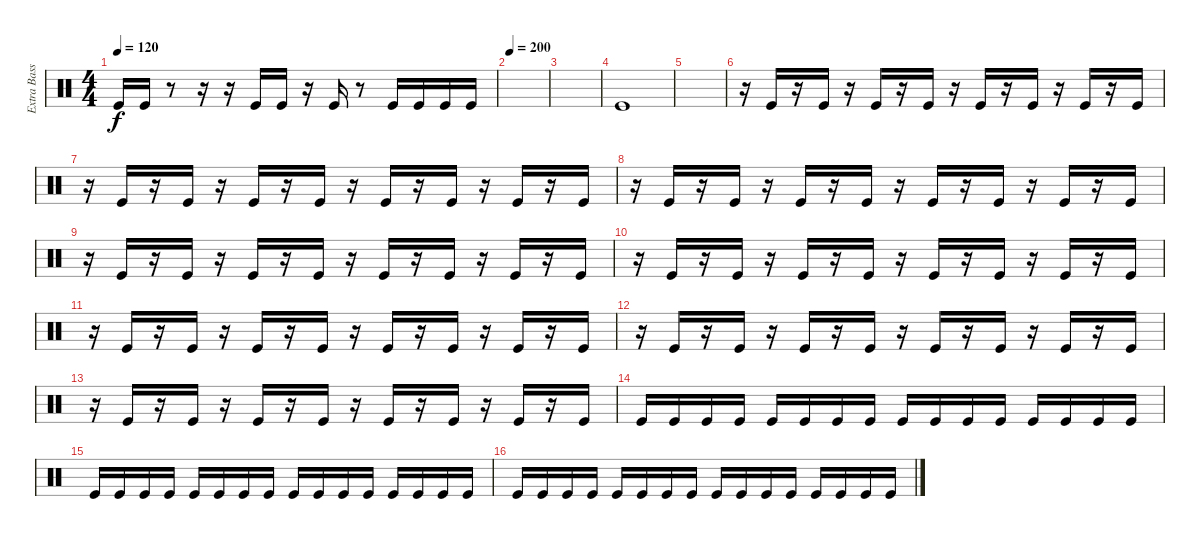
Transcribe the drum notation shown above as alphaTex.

\track ("Extra Bass Drum" "Extra Bass") {instrument percussion}
\staff {score}
\articulation defaults
\ts (4 4)
\tempo 120
\clef neutral
\ks c "Kick (hit)".16{dy f} "Kick (hit)".16
r.8 r.16 r.16 "Kick (hit)".16 "Kick (hit)".16 r.16 "Kick (hit)".16 r.8 "Kick (hit)".16 "Kick (hit)".16 "Kick (hit)".16 "Kick (hit)".16 |
\tempo 200
|
|
"Kick (hit)".1 |
|
r.16 "Kick (hit)".16 r.16 "Kick (hit)".16 r.16 "Kick (hit)".16 r.16 "Kick (hit)".16 r.16 "Kick (hit)".16 r.16 "Kick (hit)".16 r.16 "Kick (hit)".16 r.16 "Kick (hit)".16 |
r.16 "Kick (hit)".16 r.16 "Kick (hit)".16 r.16 "Kick (hit)".16 r.16 "Kick (hit)".16 r.16 "Kick (hit)".16 r.16 "Kick (hit)".16 r.16 "Kick (hit)".16 r.16 "Kick (hit)".16 |
r.16 "Kick (hit)".16 r.16 "Kick (hit)".16 r.16 "Kick (hit)".16 r.16 "Kick (hit)".16 r.16 "Kick (hit)".16 r.16 "Kick (hit)".16 r.16 "Kick (hit)".16 r.16 "Kick (hit)".16 |
r.16 "Kick (hit)".16 r.16 "Kick (hit)".16 r.16 "Kick (hit)".16 r.16 "Kick (hit)".16 r.16 "Kick (hit)".16 r.16 "Kick (hit)".16 r.16 "Kick (hit)".16 r.16 "Kick (hit)".16 |
r.16 "Kick (hit)".16 r.16 "Kick (hit)".16 r.16 "Kick (hit)".16 r.16 "Kick (hit)".16 r.16 "Kick (hit)".16 r.16 "Kick (hit)".16 r.16 "Kick (hit)".16 r.16 "Kick (hit)".16 |
r.16 "Kick (hit)".16 r.16 "Kick (hit)".16 r.16 "Kick (hit)".16 r.16 "Kick (hit)".16 r.16 "Kick (hit)".16 r.16 "Kick (hit)".16 r.16 "Kick (hit)".16 r.16 "Kick (hit)".16 |
r.16 "Kick (hit)".16 r.16 "Kick (hit)".16 r.16 "Kick (hit)".16 r.16 "Kick (hit)".16 r.16 "Kick (hit)".16 r.16 "Kick (hit)".16 r.16 "Kick (hit)".16 r.16 "Kick (hit)".16 |
r.16 "Kick (hit)".16 r.16 "Kick (hit)".16 r.16 "Kick (hit)".16 r.16 "Kick (hit)".16 r.16 "Kick (hit)".16 r.16 "Kick (hit)".16 r.16 "Kick (hit)".16 r.16 "Kick (hit)".16 |
"Kick (hit)".16 "Kick (hit)".16 "Kick (hit)".16 "Kick (hit)".16 "Kick (hit)".16 "Kick (hit)".16 "Kick (hit)".16 "Kick (hit)".16 "Kick (hit)".16 "Kick (hit)".16 "Kick (hit)".16 "Kick (hit)".16 "Kick (hit)".16 "Kick (hit)".16 "Kick (hit)".16 "Kick (hit)".16 |
"Kick (hit)".16 "Kick (hit)".16 "Kick (hit)".16 "Kick (hit)".16 "Kick (hit)".16 "Kick (hit)".16 "Kick (hit)".16 "Kick (hit)".16 "Kick (hit)".16 "Kick (hit)".16 "Kick (hit)".16 "Kick (hit)".16 "Kick (hit)".16 "Kick (hit)".16 "Kick (hit)".16 "Kick (hit)".16 |
"Kick (hit)".16 "Kick (hit)".16 "Kick (hit)".16 "Kick (hit)".16 "Kick (hit)".16 "Kick (hit)".16 "Kick (hit)".16 "Kick (hit)".16 "Kick (hit)".16 "Kick (hit)".16 "Kick (hit)".16 "Kick (hit)".16 "Kick (hit)".16 "Kick (hit)".16 "Kick (hit)".16 "Kick (hit)".16
